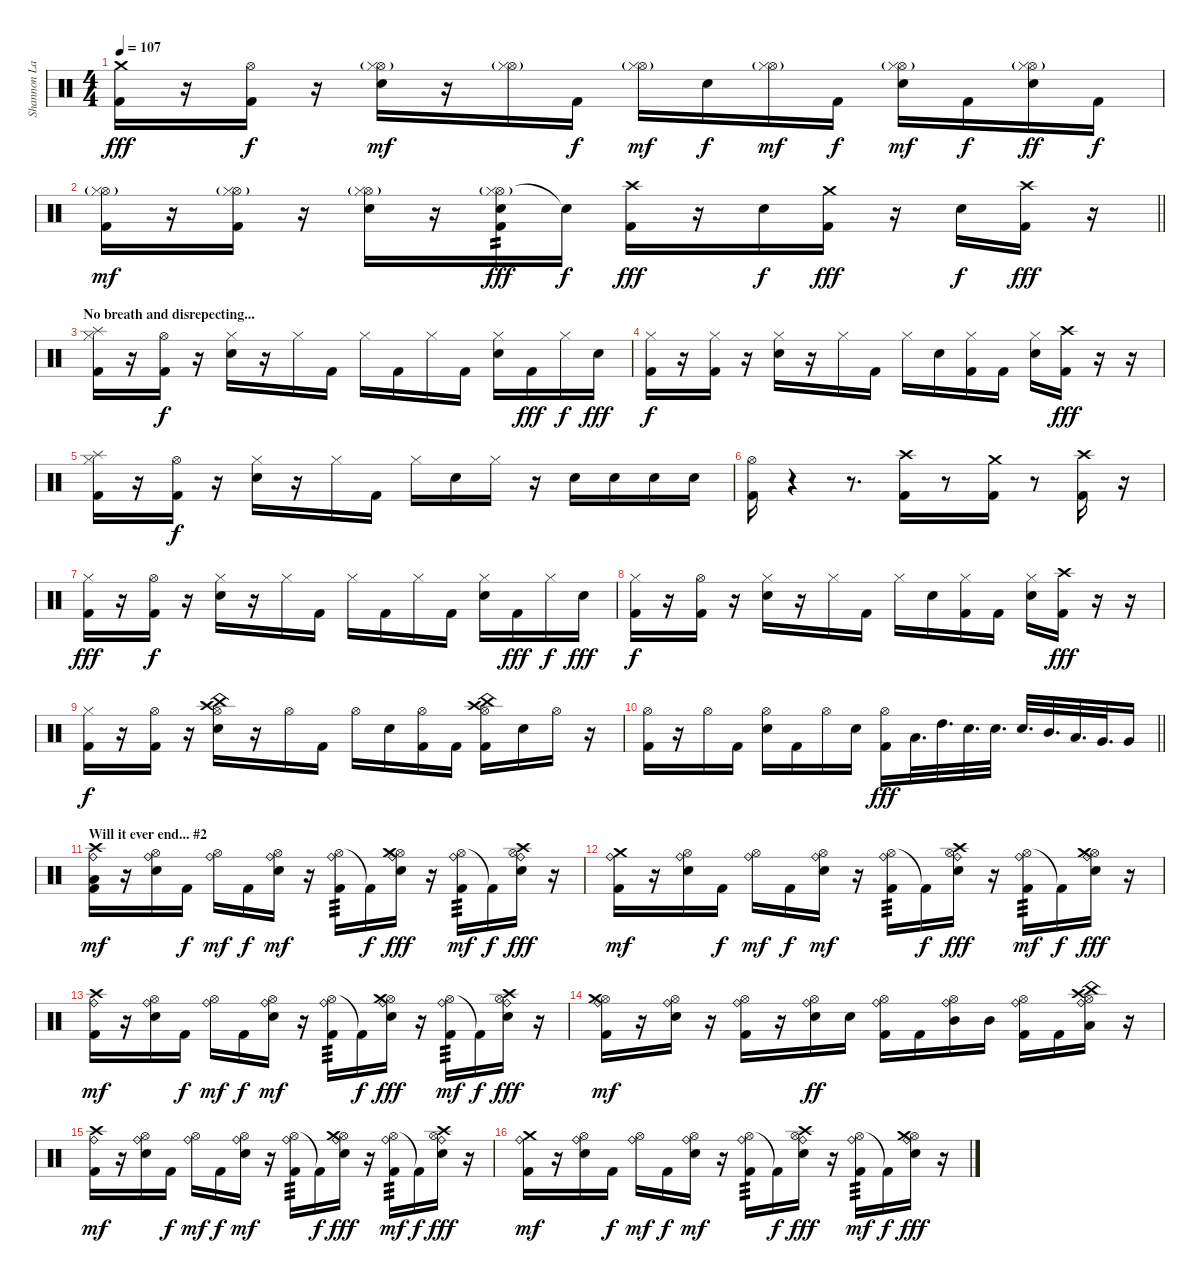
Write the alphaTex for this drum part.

\track ("Shannon Larkin" "Shannon La") {instrument percussion}
\staff {score}
\articulation defaults
\ts (4 4)
\tempo 107
\clef neutral
\ks c
("Crash medium (hit)" "Kick (hit) 2").16{dy fff} r.16 ("Hi-Hat (open)" "Kick (hit) 2").16{dy f} r.16 ("Hi-Hat (open)"{g} "Hi-Hat (closed)" "Electric Snare (hit)").16{dy mf} r.16 ("Hi-Hat (open)"{g} "Hi-Hat (closed)").16 "Kick (hit) 2".16{dy f} ("Hi-Hat (open)"{g} "Hi-Hat (closed)").16{dy mf} "Electric Snare (hit)".16{dy f} ("Hi-Hat (open)"{g} "Hi-Hat (closed)").16{dy mf} "Kick (hit) 2".16{dy f} ("Hi-Hat (open)"{g} "Hi-Hat (closed)" "Electric Snare (hit)").16{dy mf} "Kick (hit) 2".16{dy f} ("Hi-Hat (open)"{g} "Hi-Hat (closed)" "Electric Snare (hit)").16{dy ff} "Kick (hit) 2".16{dy f} |
\barLineRight lightlight
("Hi-Hat (open)"{g} "Hi-Hat (closed)" "Kick (hit) 2").16{dy mf} r.16 ("Hi-Hat (open)"{g} "Hi-Hat (closed)" "Kick (hit) 2").16 r.16 ("Hi-Hat (open)"{g} "Hi-Hat (closed)" "Electric Snare (hit)").16 r.16 ("Hi-Hat (open)"{g} "Hi-Hat (closed)" "Electric Snare (hit)" "Kick (hit) 2").16{tp 2 dy fff} "Electric Snare (hit)"{t}.16{dy f} ("Crash high (hit)" "Kick (hit) 2").16{dy fff} r.16 "Electric Snare (hit)".16{dy f} ("Crash medium (hit)" "Kick (hit) 2").16{dy fff} r.16 "Electric Snare (hit)".16{dy f} ("Crash high (hit)" "Kick (hit) 2").16{dy fff} r.16 |
\section ("" "No breath and disrepecting...")
("Hi-Hat (closed)" "Splash (hit)" "Kick (hit) 2").16 r.16 ("Hi-Hat (open)" "Kick (hit) 2").16{dy f} r.16 ("Hi-Hat (closed)" "Electric Snare (hit)").16 r.16 "Hi-Hat (closed)".16 "Kick (hit) 2".16 "Hi-Hat (closed)".16 "Kick (hit) 2".16 "Hi-Hat (closed)".16 "Kick (hit) 2".16 ("Hi-Hat (closed)" "Electric Snare (hit)").16 "Kick (hit) 2".16{dy fff} "Hi-Hat (closed)".16{dy f} "Electric Snare (hit)".16{dy fff} |
("Hi-Hat (closed)" "Kick (hit) 2").16{dy f} r.16 ("Hi-Hat (closed)" "Kick (hit) 2").16 r.16 ("Hi-Hat (closed)" "Electric Snare (hit)").16 r.16 "Hi-Hat (closed)".16 "Kick (hit) 2".16 "Hi-Hat (closed)".16 "Electric Snare (hit)".16 ("Hi-Hat (closed)" "Kick (hit) 2").16 "Kick (hit) 2".16 ("Hi-Hat (closed)" "Electric Snare (hit)").16 ("Crash high (hit)" "Kick (hit) 2").16{dy fff} r.16 r.16 |
("Hi-Hat (closed)" "Splash (hit)" "Kick (hit) 2").16 r.16 ("Hi-Hat (open)" "Kick (hit) 2").16{dy f} r.16 ("Hi-Hat (closed)" "Electric Snare (hit)").16 r.16 "Hi-Hat (closed)".16 "Kick (hit) 2".16 "Hi-Hat (closed)".16 "Electric Snare (hit)".16 "Hi-Hat (closed)".16 r.16 "Electric Snare (hit)".16 "Electric Snare (hit)".16 "Electric Snare (hit)".16 "Electric Snare (hit)".16 |
("Hi-Hat (open)" "Kick (hit) 2").16 r.4 r.8{d} ("Crash high (hit)" "Kick (hit) 2").16 r.8 ("Crash medium (hit)" "Kick (hit) 2").16 r.8 ("Crash high (hit)" "Kick (hit) 2").16 r.16 |
("Hi-Hat (closed)" "Kick (hit) 2").16{dy fff} r.16 ("Hi-Hat (open)" "Kick (hit) 2").16{dy f} r.16 ("Hi-Hat (closed)" "Electric Snare (hit)").16 r.16 "Hi-Hat (closed)".16 "Kick (hit) 2".16 "Hi-Hat (closed)".16 "Kick (hit) 2".16 "Hi-Hat (closed)".16 "Kick (hit) 2".16 ("Hi-Hat (closed)" "Electric Snare (hit)").16 "Kick (hit) 2".16{dy fff} "Hi-Hat (closed)".16{dy f} "Electric Snare (hit)".16{dy fff} |
("Hi-Hat (closed)" "Kick (hit) 2").16{dy f} r.16 ("Hi-Hat (open)" "Kick (hit) 2").16 r.16 ("Hi-Hat (closed)" "Electric Snare (hit)").16 r.16 "Hi-Hat (closed)".16 "Kick (hit) 2".16 "Hi-Hat (closed)".16 "Electric Snare (hit)".16 ("Hi-Hat (closed)" "Kick (hit) 2").16 "Kick (hit) 2".16 ("Hi-Hat (closed)" "Electric Snare (hit)").16 ("Crash high (hit)" "Kick (hit) 2").16{dy fff} r.16 r.16 |
("Hi-Hat (closed)" "Kick (hit) 2").16{dy f} r.16 ("Hi-Hat (open)" "Kick (hit) 2").16 r.16 ("Hi-Hat (open)" "Electric Snare (hit)" "China (hit)" "Crash high (hit)").16 r.16 "Hi-Hat (open)".16 "Kick (hit) 2".16 "Hi-Hat (open)".16 "Electric Snare (hit)".16 ("Hi-Hat (open)" "Kick (hit) 2").16 "Kick (hit) 2".16 ("Hi-Hat (open)" "Kick (hit) 2" "China (hit)" "Crash high (hit)").16 "Electric Snare (hit)".16 "Hi-Hat (open)".16 r.16 |
\barLineRight lightlight
("Hi-Hat (open)" "Kick (hit) 2").16 r.16 "Hi-Hat (open)".16 "Kick (hit) 2".16 ("Hi-Hat (open)" "Electric Snare (hit)").16 "Kick (hit) 2".16 "Hi-Hat (open)".16 "Electric Snare (hit)".16 ("Hi-Hat (open)" "Kick (hit) 2").16{dy fff} "Low Tom (hit)".32{d} "High Tom (hit)".32{d} "Electric Snare (hit)".32{d} "Electric Snare (hit)".32{d} "Electric Snare (hit)".32{d} "Mid Tom (hit)".32{d} "Low Tom (hit)".32{d} "Very Low Tom (hit)".32{d} "Very Low Tom (hit)".16 |
\section ("" "Will it ever end... #2")
("Crash high (hit)" "Ride (bell)" "Low Floor Tom (hit)" "Kick (hit) 2").16{dy mf} r.16 ("Hi-Hat (open)" "Ride (bell)" "Electric Snare (hit)").16 "Kick (hit) 2".16{dy f} ("Hi-Hat (open)" "Ride (bell)").16{dy mf} "Kick (hit) 2".16{dy f} ("Hi-Hat (open)" "Ride (bell)" "Electric Snare (hit)").16{dy mf} r.16 ("Hi-Hat (open)" "Ride (bell)" "Kick (hit) 2").16{tp 3} "Kick (hit) 2"{t}.16{dy f} ("Hi-Hat (open)" "Ride (bell)" "Electric Snare (hit)" "Crash medium (hit)").16{dy fff} r.16 ("Hi-Hat (open)" "Ride (bell)" "Kick (hit) 2").16{tp 3 dy mf} "Kick (hit) 2"{t}.16{dy f} ("Hi-Hat (open)" "Ride (bell)" "Electric Snare (hit)" "Crash high (hit)").16{dy fff} r.16 |
("Crash medium (hit)" "Ride (bell)" "Kick (hit) 2").16{dy mf} r.16 ("Hi-Hat (open)" "Ride (bell)" "Electric Snare (hit)").16 "Kick (hit) 2".16{dy f} ("Hi-Hat (open)" "Ride (bell)").16{dy mf} "Kick (hit) 2".16{dy f} ("Hi-Hat (open)" "Ride (bell)" "Electric Snare (hit)").16{dy mf} r.16 ("Hi-Hat (open)" "Ride (bell)" "Kick (hit) 2").16{tp 3} "Kick (hit) 2"{t}.16{dy f} ("Hi-Hat (open)" "Ride (bell)" "Electric Snare (hit)" "Crash high (hit)").16{dy fff} r.16 ("Hi-Hat (open)" "Ride (bell)" "Kick (hit) 2").16{tp 3 dy mf} "Kick (hit) 2"{t}.16{dy f} ("Hi-Hat (open)" "Ride (bell)" "Electric Snare (hit)" "Crash medium (hit)").16{dy fff} r.16 |
("Crash high (hit)" "Ride (bell)" "Kick (hit) 2").16{dy mf} r.16 ("Hi-Hat (open)" "Ride (bell)" "Electric Snare (hit)").16 "Kick (hit) 2".16{dy f} ("Hi-Hat (open)" "Ride (bell)").16{dy mf} "Kick (hit) 2".16{dy f} ("Hi-Hat (open)" "Ride (bell)" "Electric Snare (hit)").16{dy mf} r.16 ("Hi-Hat (open)" "Ride (bell)" "Kick (hit) 2").16{tp 3} "Kick (hit) 2"{t}.16{dy f} ("Hi-Hat (open)" "Ride (bell)" "Electric Snare (hit)" "Crash medium (hit)").16{dy fff} r.16 ("Hi-Hat (open)" "Ride (bell)" "Kick (hit) 2").16{tp 3 dy mf} "Kick (hit) 2"{t}.16{dy f} ("Hi-Hat (open)" "Ride (bell)" "Electric Snare (hit)" "Crash high (hit)").16{dy fff} r.16 |
("Hi-Hat (open)" "Crash medium (hit)" "Ride (bell)" "Kick (hit) 2").16{dy mf} r.16 ("Hi-Hat (open)" "Ride (bell)" "Electric Snare (hit)").16 r.16 ("Hi-Hat (open)" "Ride (bell)" "Kick (hit) 2").16 r.16 ("Hi-Hat (open)" "Ride (bell)" "Electric Snare (hit)").16{dy ff} "Electric Snare (hit)".16 ("Hi-Hat (open)" "Ride (bell)" "Kick (hit) 2").16 "Kick (hit) 2".16 ("Hi-Hat (open)" "Ride (bell)" "Mid Tom (hit)").16 "Mid Tom (hit)".16 ("Hi-Hat (open)" "Ride (bell)" "Kick (hit) 2").16 "Kick (hit) 2".16 ("Hi-Hat (open)" "Ride (bell)" "Low Tom (hit)" "China (hit)" "Crash high (hit)").16 r.16 |
("Crash high (hit)" "Ride (bell)" "Kick (hit) 2").16{dy mf} r.16 ("Hi-Hat (open)" "Ride (bell)" "Electric Snare (hit)").16 "Kick (hit) 2".16{dy f} ("Hi-Hat (open)" "Ride (bell)").16{dy mf} "Kick (hit) 2".16{dy f} ("Hi-Hat (open)" "Ride (bell)" "Electric Snare (hit)").16{dy mf} r.16 ("Hi-Hat (open)" "Ride (bell)" "Kick (hit) 2").16{tp 3} "Kick (hit) 2"{t}.16{dy f} ("Hi-Hat (open)" "Ride (bell)" "Electric Snare (hit)" "Crash medium (hit)").16{dy fff} r.16 ("Hi-Hat (open)" "Ride (bell)" "Kick (hit) 2").16{tp 3 dy mf} "Kick (hit) 2"{t}.16{dy f} ("Hi-Hat (open)" "Ride (bell)" "Electric Snare (hit)" "Crash high (hit)").16{dy fff} r.16 |
("Crash medium (hit)" "Ride (bell)" "Kick (hit) 2").16{dy mf} r.16 ("Hi-Hat (open)" "Ride (bell)" "Electric Snare (hit)").16 "Kick (hit) 2".16{dy f} ("Hi-Hat (open)" "Ride (bell)").16{dy mf} "Kick (hit) 2".16{dy f} ("Hi-Hat (open)" "Ride (bell)" "Electric Snare (hit)").16{dy mf} r.16 ("Hi-Hat (open)" "Ride (bell)" "Kick (hit) 2").16{tp 3} "Kick (hit) 2"{t}.16{dy f} ("Hi-Hat (open)" "Ride (bell)" "Electric Snare (hit)" "Crash high (hit)").16{dy fff} r.16 ("Hi-Hat (open)" "Ride (bell)" "Kick (hit) 2").16{tp 3 dy mf} "Kick (hit) 2"{t}.16{dy f} ("Hi-Hat (open)" "Ride (bell)" "Electric Snare (hit)" "Crash medium (hit)").16{dy fff} r.16
